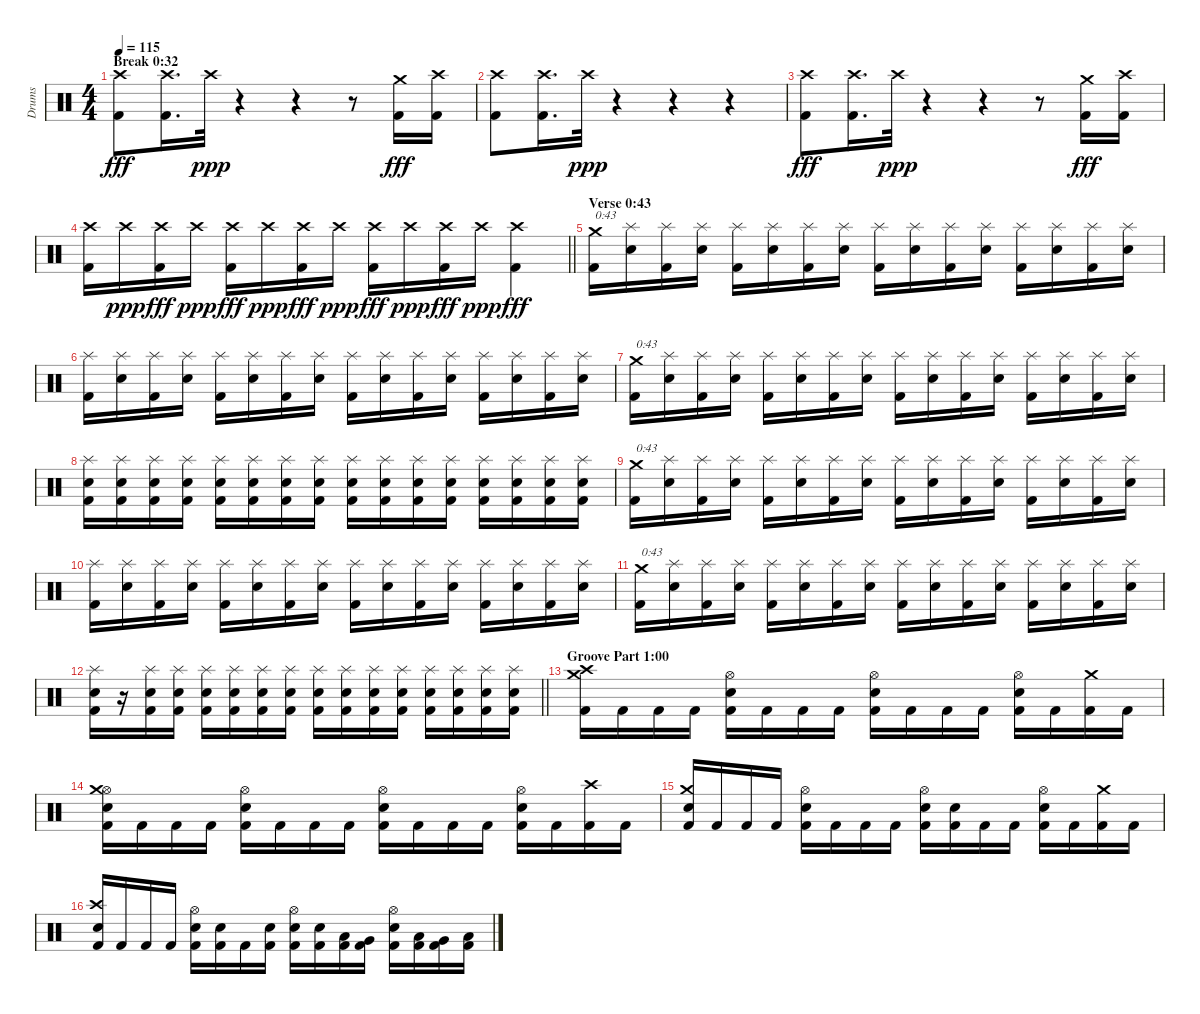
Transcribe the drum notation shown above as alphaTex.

\track ("Drums" "Drums") {instrument percussion}
\staff {score}
\articulation defaults
\ts (4 4)
\section ("" "Break 0:32")
\tempo 115
\clef neutral
\ks c
("Kick (hit) 2" "Crash high (hit)").8{dy fff} ("Kick (hit) 2" "Crash high (hit)").16{d} "Crash high (hit)".32{dy ppp} r.4 r.4 r.8 ("Kick (hit) 2" "Crash medium (hit)").16{dy fff} ("Kick (hit) 2" "Crash high (hit)").16 |
("Kick (hit) 2" "Crash high (hit)").8 ("Kick (hit) 2" "Crash high (hit)").16{d} "Crash high (hit)".32{dy ppp} r.4 r.4 r.4 |
("Kick (hit) 2" "Crash high (hit)").8{dy fff} ("Kick (hit) 2" "Crash high (hit)").16{d} "Crash high (hit)".32{dy ppp} r.4 r.4 r.8 ("Kick (hit) 2" "Crash medium (hit)").16{dy fff} ("Kick (hit) 2" "Crash high (hit)").16 |
\barLineRight lightlight
("Kick (hit) 2" "Crash high (hit)").16 "Crash high (hit)".16{dy ppp} ("Kick (hit) 2" "Crash high (hit)").16{dy fff} "Crash high (hit)".16{dy ppp} ("Kick (hit) 2" "Crash high (hit)").16{dy fff} "Crash high (hit)".16{dy ppp} ("Kick (hit) 2" "Crash high (hit)").16{dy fff} "Crash high (hit)".16{dy ppp} ("Kick (hit) 2" "Crash high (hit)").16{dy fff} "Crash high (hit)".16{dy ppp} ("Kick (hit) 2" "Crash high (hit)").16{dy fff} "Crash high (hit)".16{dy ppp} ("Kick (hit) 2" "Crash high (hit)").4{dy fff} |
\section ("" "Verse 0:43")
("Kick (hit) 2" "Crash medium (hit)").16{txt "0:43"} ("Electric Snare (hit)" "Splash (hit)").16 ("Kick (hit) 2" "Splash (hit)").16 ("Electric Snare (hit)" "Splash (hit)").16 ("Kick (hit) 2" "Splash (hit)").16 ("Electric Snare (hit)" "Splash (hit)").16 ("Kick (hit) 2" "Splash (hit)").16 ("Electric Snare (hit)" "Splash (hit)").16 ("Kick (hit) 2" "Splash (hit)").16 ("Electric Snare (hit)" "Splash (hit)").16 ("Kick (hit) 2" "Splash (hit)").16 ("Electric Snare (hit)" "Splash (hit)").16 ("Kick (hit) 2" "Splash (hit)").16 ("Electric Snare (hit)" "Splash (hit)").16 ("Kick (hit) 2" "Splash (hit)").16 ("Electric Snare (hit)" "Splash (hit)").16 |
("Kick (hit) 2" "Splash (hit)").16 ("Electric Snare (hit)" "Splash (hit)").16 ("Kick (hit) 2" "Splash (hit)").16 ("Electric Snare (hit)" "Splash (hit)").16 ("Kick (hit) 2" "Splash (hit)").16 ("Electric Snare (hit)" "Splash (hit)").16 ("Kick (hit) 2" "Splash (hit)").16 ("Electric Snare (hit)" "Splash (hit)").16 ("Kick (hit) 2" "Splash (hit)").16 ("Electric Snare (hit)" "Splash (hit)").16 ("Kick (hit) 2" "Splash (hit)").16 ("Electric Snare (hit)" "Splash (hit)").16 ("Kick (hit) 2" "Splash (hit)").16 ("Electric Snare (hit)" "Splash (hit)").16 ("Kick (hit) 2" "Splash (hit)").16 ("Electric Snare (hit)" "Splash (hit)").16 |
("Kick (hit) 2" "Crash medium (hit)").16{txt "0:43"} ("Electric Snare (hit)" "Splash (hit)").16 ("Kick (hit) 2" "Splash (hit)").16 ("Electric Snare (hit)" "Splash (hit)").16 ("Kick (hit) 2" "Splash (hit)").16 ("Electric Snare (hit)" "Splash (hit)").16 ("Kick (hit) 2" "Splash (hit)").16 ("Electric Snare (hit)" "Splash (hit)").16 ("Kick (hit) 2" "Splash (hit)").16 ("Electric Snare (hit)" "Splash (hit)").16 ("Kick (hit) 2" "Splash (hit)").16 ("Electric Snare (hit)" "Splash (hit)").16 ("Kick (hit) 2" "Splash (hit)").16 ("Electric Snare (hit)" "Splash (hit)").16 ("Kick (hit) 2" "Splash (hit)").16 ("Electric Snare (hit)" "Splash (hit)").16 |
("Kick (hit) 2" "Electric Snare (hit)" "Splash (hit)").16 ("Kick (hit) 2" "Electric Snare (hit)" "Splash (hit)").16 ("Kick (hit) 2" "Electric Snare (hit)" "Splash (hit)").16 ("Kick (hit) 2" "Electric Snare (hit)" "Splash (hit)").16 ("Kick (hit) 2" "Electric Snare (hit)" "Splash (hit)").16 ("Kick (hit) 2" "Electric Snare (hit)" "Splash (hit)").16 ("Kick (hit) 2" "Electric Snare (hit)" "Splash (hit)").16 ("Kick (hit) 2" "Electric Snare (hit)" "Splash (hit)").16 ("Kick (hit) 2" "Electric Snare (hit)" "Splash (hit)").16 ("Kick (hit) 2" "Electric Snare (hit)" "Splash (hit)").16 ("Kick (hit) 2" "Electric Snare (hit)" "Splash (hit)").16 ("Kick (hit) 2" "Electric Snare (hit)" "Splash (hit)").16 ("Kick (hit) 2" "Electric Snare (hit)" "Splash (hit)").16 ("Kick (hit) 2" "Electric Snare (hit)" "Splash (hit)").16 ("Kick (hit) 2" "Electric Snare (hit)" "Splash (hit)").16 ("Kick (hit) 2" "Electric Snare (hit)" "Splash (hit)").16 |
("Kick (hit) 2" "Crash medium (hit)").16{txt "0:43"} ("Electric Snare (hit)" "Splash (hit)").16 ("Kick (hit) 2" "Splash (hit)").16 ("Electric Snare (hit)" "Splash (hit)").16 ("Kick (hit) 2" "Splash (hit)").16 ("Electric Snare (hit)" "Splash (hit)").16 ("Kick (hit) 2" "Splash (hit)").16 ("Electric Snare (hit)" "Splash (hit)").16 ("Kick (hit) 2" "Splash (hit)").16 ("Electric Snare (hit)" "Splash (hit)").16 ("Kick (hit) 2" "Splash (hit)").16 ("Electric Snare (hit)" "Splash (hit)").16 ("Kick (hit) 2" "Splash (hit)").16 ("Electric Snare (hit)" "Splash (hit)").16 ("Kick (hit) 2" "Splash (hit)").16 ("Electric Snare (hit)" "Splash (hit)").16 |
("Kick (hit) 2" "Splash (hit)").16 ("Electric Snare (hit)" "Splash (hit)").16 ("Kick (hit) 2" "Splash (hit)").16 ("Electric Snare (hit)" "Splash (hit)").16 ("Kick (hit) 2" "Splash (hit)").16 ("Electric Snare (hit)" "Splash (hit)").16 ("Kick (hit) 2" "Splash (hit)").16 ("Electric Snare (hit)" "Splash (hit)").16 ("Kick (hit) 2" "Splash (hit)").16 ("Electric Snare (hit)" "Splash (hit)").16 ("Kick (hit) 2" "Splash (hit)").16 ("Electric Snare (hit)" "Splash (hit)").16 ("Kick (hit) 2" "Splash (hit)").16 ("Electric Snare (hit)" "Splash (hit)").16 ("Kick (hit) 2" "Splash (hit)").16 ("Electric Snare (hit)" "Splash (hit)").16 |
("Kick (hit) 2" "Crash medium (hit)").16{txt "0:43"} ("Electric Snare (hit)" "Splash (hit)").16 ("Kick (hit) 2" "Splash (hit)").16 ("Electric Snare (hit)" "Splash (hit)").16 ("Kick (hit) 2" "Splash (hit)").16 ("Electric Snare (hit)" "Splash (hit)").16 ("Kick (hit) 2" "Splash (hit)").16 ("Electric Snare (hit)" "Splash (hit)").16 ("Kick (hit) 2" "Splash (hit)").16 ("Electric Snare (hit)" "Splash (hit)").16 ("Kick (hit) 2" "Splash (hit)").16 ("Electric Snare (hit)" "Splash (hit)").16 ("Kick (hit) 2" "Splash (hit)").16 ("Electric Snare (hit)" "Splash (hit)").16 ("Kick (hit) 2" "Splash (hit)").16 ("Electric Snare (hit)" "Splash (hit)").16 |
\barLineRight lightlight
("Kick (hit) 2" "Electric Snare (hit)" "Splash (hit)").16 r.16 ("Kick (hit) 2" "Electric Snare (hit)" "Splash (hit)").16 ("Kick (hit) 2" "Electric Snare (hit)" "Splash (hit)").16 ("Kick (hit) 2" "Electric Snare (hit)" "Splash (hit)").16 ("Kick (hit) 2" "Electric Snare (hit)" "Splash (hit)").16 ("Kick (hit) 2" "Electric Snare (hit)" "Splash (hit)").16 ("Kick (hit) 2" "Electric Snare (hit)" "Splash (hit)").16 ("Kick (hit) 2" "Electric Snare (hit)" "Splash (hit)").16 ("Kick (hit) 2" "Electric Snare (hit)" "Splash (hit)").16 ("Kick (hit) 2" "Electric Snare (hit)" "Splash (hit)").16 ("Kick (hit) 2" "Electric Snare (hit)" "Splash (hit)").16 ("Kick (hit) 2" "Electric Snare (hit)" "Splash (hit)").16 ("Kick (hit) 2" "Electric Snare (hit)" "Splash (hit)").16 ("Kick (hit) 2" "Electric Snare (hit)" "Splash (hit)").16 ("Kick (hit) 2" "Electric Snare (hit)" "Splash (hit)").16 |
\section ("" "Groove Part 1:00")
("Kick (hit) 2" "Crash medium (hit)" "Crash high (hit)").16 "Kick (hit) 2".16 "Kick (hit) 2".16 "Kick (hit) 2".16 ("Kick (hit) 2" "Electric Snare (hit)" "Hi-Hat (open)").16 "Kick (hit) 2".16 "Kick (hit) 2".16 "Kick (hit) 2".16 ("Kick (hit) 2" "Electric Snare (hit)" "Hi-Hat (open)").16 "Kick (hit) 2".16 "Kick (hit) 2".16 "Kick (hit) 2".16 ("Kick (hit) 2" "Electric Snare (hit)" "Hi-Hat (open)").16 "Kick (hit) 2".16 ("Kick (hit) 2" "Crash medium (hit)").16 "Kick (hit) 2".16 |
("Kick (hit) 2" "Electric Snare (hit)" "Hi-Hat (open)" "Crash medium (hit)").16 "Kick (hit) 2".16 "Kick (hit) 2".16 "Kick (hit) 2".16 ("Kick (hit) 2" "Electric Snare (hit)" "Hi-Hat (open)").16 "Kick (hit) 2".16 "Kick (hit) 2".16 "Kick (hit) 2".16 ("Kick (hit) 2" "Electric Snare (hit)" "Hi-Hat (open)").16 "Kick (hit) 2".16 "Kick (hit) 2".16 "Kick (hit) 2".16 ("Kick (hit) 2" "Electric Snare (hit)" "Hi-Hat (open)").16 "Kick (hit) 2".16 ("Kick (hit) 2" "Crash high (hit)").16 "Kick (hit) 2".16 |
("Kick (hit) 2" "Electric Snare (hit)" "Crash medium (hit)").16 "Kick (hit) 2".16 "Kick (hit) 2".16 "Kick (hit) 2".16 ("Kick (hit) 2" "Electric Snare (hit)" "Hi-Hat (open)").16 "Kick (hit) 2".16 "Kick (hit) 2".16 "Kick (hit) 2".16 ("Kick (hit) 2" "Electric Snare (hit)" "Hi-Hat (open)").16 ("Kick (hit) 2" "Electric Snare (hit)").16 "Kick (hit) 2".16 "Kick (hit) 2".16 ("Kick (hit) 2" "Electric Snare (hit)" "Hi-Hat (open)").16 "Kick (hit) 2".16 ("Kick (hit) 2" "Crash medium (hit)").16 "Kick (hit) 2".16 |
("Kick (hit) 2" "Electric Snare (hit)" "Crash high (hit)").16 "Kick (hit) 2".16 "Kick (hit) 2".16 "Kick (hit) 2".16 ("Kick (hit) 2" "Electric Snare (hit)" "Hi-Hat (open)").16 ("Kick (hit) 2" "Electric Snare (hit)").16 "Kick (hit) 2".16 ("Kick (hit) 2" "Electric Snare (hit)").16 ("Kick (hit) 2" "Electric Snare (hit)" "Hi-Hat (open)").16 ("Kick (hit) 2" "Electric Snare (hit)").16 ("Kick (hit) 2" "Low Tom (hit)").16 ("Kick (hit) 2" "Very Low Tom (hit)").16 ("Kick (hit) 2" "Electric Snare (hit)" "Hi-Hat (open)").16 ("Kick (hit) 2" "Low Tom (hit)").16 ("Kick (hit) 2" "Very Low Tom (hit)").16 ("Kick (hit) 2" "Low Floor Tom (hit)").16
